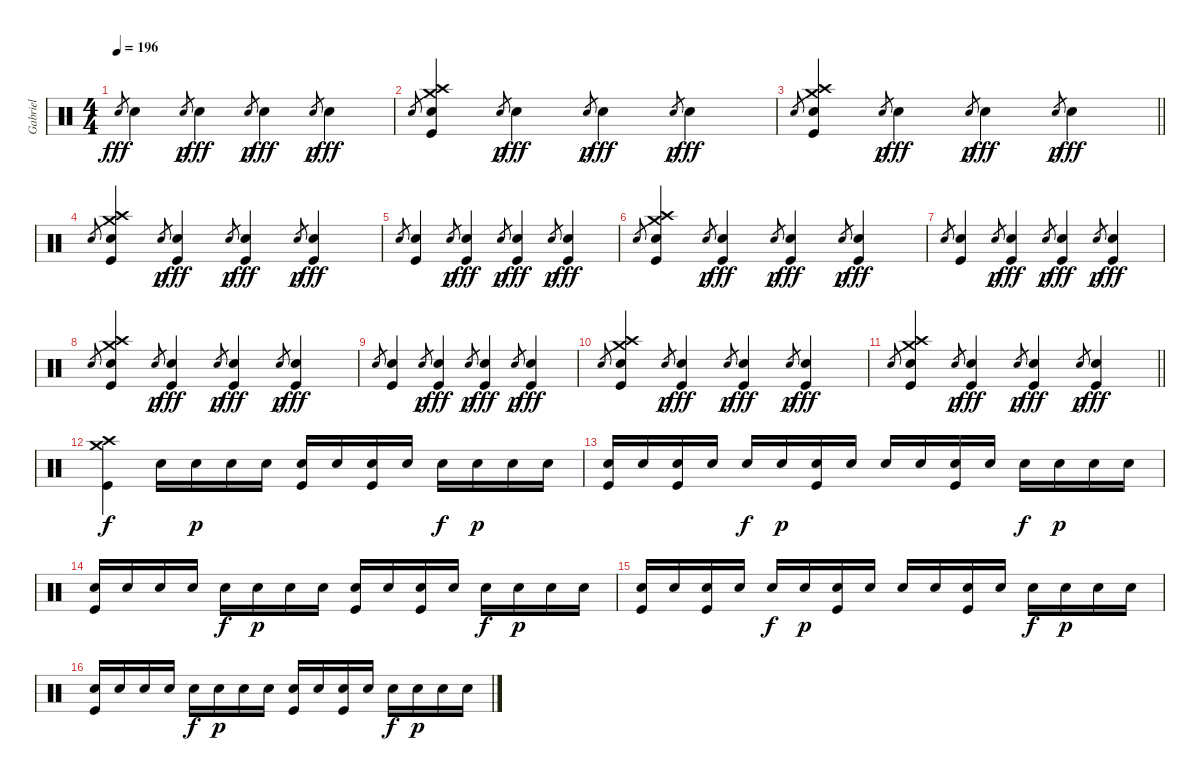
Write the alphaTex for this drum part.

\track ("Gabriel" "Gabriel") {instrument percussion}
\staff {score}
\articulation defaults
\ts (4 4)
\tempo 196
\clef neutral
\ks aminor "Hand Clap (hit)".8{gr dy fff} "Hand Clap (hit)".4 "Hand Clap (hit)".8{gr dy p} "Hand Clap (hit)".4{dy fff} "Hand Clap (hit)".8{gr dy p} "Hand Clap (hit)".4{dy fff} "Hand Clap (hit)".8{gr dy p} "Hand Clap (hit)".4{dy fff}
|
"Hand Clap (hit)".8{gr} ("Crash medium (hit)" "Crash high (hit)" "Kick (hit)" "Hand Clap (hit)").4 "Hand Clap (hit)".8{gr dy p} "Hand Clap (hit)".4{dy fff} "Hand Clap (hit)".8{gr dy p} "Hand Clap (hit)".4{dy fff} "Hand Clap (hit)".8{gr dy p} "Hand Clap (hit)".4{dy fff} |
\barLineRight lightlight "Hand Clap (hit)".8{gr}
("Crash medium (hit)" "Crash high (hit)" "Kick (hit)" "Hand Clap (hit)").4 "Hand Clap (hit)".8{gr dy p} "Hand Clap (hit)".4{dy fff} "Hand Clap (hit)".8{gr dy p} "Hand Clap (hit)".4{dy fff} "Hand Clap (hit)".8{gr dy p} "Hand Clap (hit)".4{dy fff} |
"Hand Clap (hit)".8{gr} ("Crash medium (hit)" "Crash high (hit)" "Kick (hit)" "Hand Clap (hit)").4 "Hand Clap (hit)".8{gr dy p} ("Kick (hit)" "Hand Clap (hit)").4{dy fff} "Hand Clap (hit)".8{gr dy p} ("Kick (hit)" "Hand Clap (hit)").4{dy fff} "Hand Clap (hit)".8{gr dy p} ("Kick (hit)" "Hand Clap (hit)").4{dy fff} |
"Hand Clap (hit)".8{gr} ("Kick (hit)" "Hand Clap (hit)").4 "Hand Clap (hit)".8{gr dy p} ("Kick (hit)" "Hand Clap (hit)").4{dy fff} "Hand Clap (hit)".8{gr dy p} ("Kick (hit)" "Hand Clap (hit)").4{dy fff} "Hand Clap (hit)".8{gr dy p} ("Kick (hit)" "Hand Clap (hit)").4{dy fff} |
"Hand Clap (hit)".8{gr} ("Crash medium (hit)" "Crash high (hit)" "Kick (hit)" "Hand Clap (hit)").4 "Hand Clap (hit)".8{gr dy p} ("Kick (hit)" "Hand Clap (hit)").4{dy fff} "Hand Clap (hit)".8{gr dy p} ("Kick (hit)" "Hand Clap (hit)").4{dy fff} "Hand Clap (hit)".8{gr dy p} ("Kick (hit)" "Hand Clap (hit)").4{dy fff} |
"Hand Clap (hit)".8{gr} ("Kick (hit)" "Hand Clap (hit)").4 "Hand Clap (hit)".8{gr dy p} ("Kick (hit)" "Hand Clap (hit)").4{dy fff} "Hand Clap (hit)".8{gr dy p} ("Kick (hit)" "Hand Clap (hit)").4{dy fff} "Hand Clap (hit)".8{gr dy p} ("Kick (hit)" "Hand Clap (hit)").4{dy fff} |
"Hand Clap (hit)".8{gr} ("Crash medium (hit)" "Crash high (hit)" "Kick (hit)" "Hand Clap (hit)").4 "Hand Clap (hit)".8{gr dy p} ("Kick (hit)" "Hand Clap (hit)").4{dy fff} "Hand Clap (hit)".8{gr dy p} ("Kick (hit)" "Hand Clap (hit)").4{dy fff} "Hand Clap (hit)".8{gr dy p} ("Kick (hit)" "Hand Clap (hit)").4{dy fff} |
"Hand Clap (hit)".8{gr} ("Kick (hit)" "Hand Clap (hit)").4 "Hand Clap (hit)".8{gr dy p} ("Kick (hit)" "Hand Clap (hit)").4{dy fff} "Hand Clap (hit)".8{gr dy p} ("Kick (hit)" "Hand Clap (hit)").4{dy fff} "Hand Clap (hit)".8{gr dy p} ("Kick (hit)" "Hand Clap (hit)").4{dy fff} |
"Hand Clap (hit)".8{gr} ("Crash medium (hit)" "Crash high (hit)" "Kick (hit)" "Hand Clap (hit)").4 "Hand Clap (hit)".8{gr dy p} ("Kick (hit)" "Hand Clap (hit)").4{dy fff} "Hand Clap (hit)".8{gr dy p} ("Kick (hit)" "Hand Clap (hit)").4{dy fff} "Hand Clap (hit)".8{gr dy p} ("Kick (hit)" "Hand Clap (hit)").4{dy fff} |
\barLineRight lightlight "Hand Clap (hit)".8{gr}
("Crash medium (hit)" "Crash high (hit)" "Kick (hit)" "Hand Clap (hit)").4 "Hand Clap (hit)".8{gr dy p} ("Kick (hit)" "Hand Clap (hit)").4{dy fff} "Hand Clap (hit)".8{gr dy p} ("Kick (hit)" "Hand Clap (hit)").4{dy fff} "Hand Clap (hit)".8{gr dy p} ("Kick (hit)" "Hand Clap (hit)").4{dy fff} |
("Crash medium (hit)" "Crash high (hit)" "Kick (hit)").4{dy f} "Snare (hit) 2".16 "Snare (hit) 2".16{dy p} "Snare (hit) 2".16 "Snare (hit) 2".16 ("Snare (hit) 2" "Kick (hit)").16 "Snare (hit) 2".16 ("Snare (hit) 2" "Kick (hit)").16 "Snare (hit) 2".16 "Snare (hit) 2".16{dy f} "Snare (hit) 2".16{dy p} "Snare (hit) 2".16 "Snare (hit) 2".16 |
("Snare (hit) 2" "Kick (hit)").16 "Snare (hit) 2".16 ("Snare (hit) 2" "Kick (hit)").16 "Snare (hit) 2".16 "Snare (hit) 2".16{dy f} "Snare (hit) 2".16{dy p} ("Snare (hit) 2" "Kick (hit)").16 "Snare (hit) 2".16 "Snare (hit) 2".16 "Snare (hit) 2".16 ("Snare (hit) 2" "Kick (hit)").16 "Snare (hit) 2".16 "Snare (hit) 2".16{dy f} "Snare (hit) 2".16{dy p} "Snare (hit) 2".16 "Snare (hit) 2".16 |
("Snare (hit) 2" "Kick (hit)").16 "Snare (hit) 2".16 "Snare (hit) 2".16 "Snare (hit) 2".16 "Snare (hit) 2".16{dy f} "Snare (hit) 2".16{dy p} "Snare (hit) 2".16 "Snare (hit) 2".16 ("Snare (hit) 2" "Kick (hit)").16 "Snare (hit) 2".16 ("Snare (hit) 2" "Kick (hit)").16 "Snare (hit) 2".16 "Snare (hit) 2".16{dy f} "Snare (hit) 2".16{dy p} "Snare (hit) 2".16 "Snare (hit) 2".16 |
("Snare (hit) 2" "Kick (hit)").16 "Snare (hit) 2".16 ("Snare (hit) 2" "Kick (hit)").16 "Snare (hit) 2".16 "Snare (hit) 2".16{dy f} "Snare (hit) 2".16{dy p} ("Snare (hit) 2" "Kick (hit)").16 "Snare (hit) 2".16 "Snare (hit) 2".16 "Snare (hit) 2".16 ("Snare (hit) 2" "Kick (hit)").16 "Snare (hit) 2".16 "Snare (hit) 2".16{dy f} "Snare (hit) 2".16{dy p} "Snare (hit) 2".16 "Snare (hit) 2".16 |
("Snare (hit) 2" "Kick (hit)").16 "Snare (hit) 2".16 "Snare (hit) 2".16 "Snare (hit) 2".16 "Snare (hit) 2".16{dy f} "Snare (hit) 2".16{dy p} "Snare (hit) 2".16 "Snare (hit) 2".16 ("Snare (hit) 2" "Kick (hit)").16 "Snare (hit) 2".16 ("Snare (hit) 2" "Kick (hit)").16 "Snare (hit) 2".16 "Snare (hit) 2".16{dy f} "Snare (hit) 2".16{dy p} "Snare (hit) 2".16 "Snare (hit) 2".16
